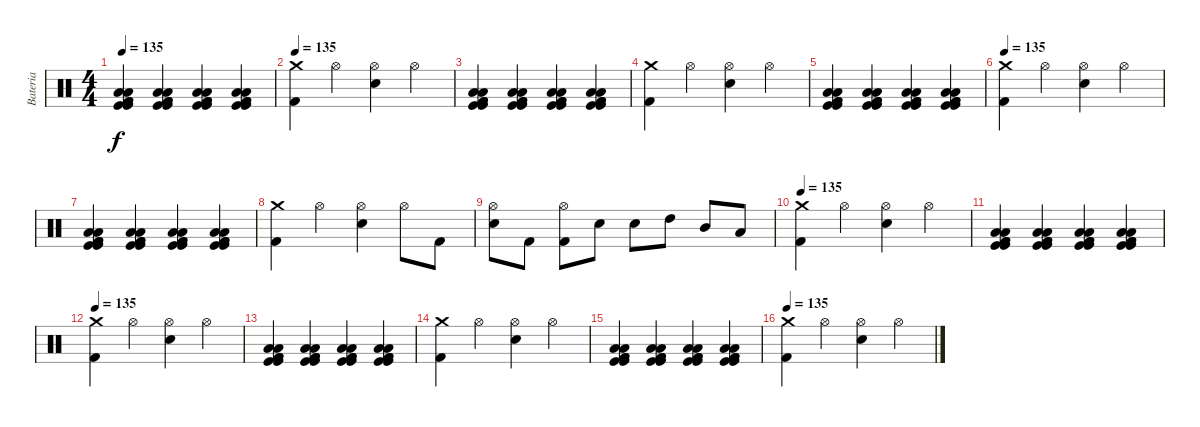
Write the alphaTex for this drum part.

\track ("Bateria" "Bateria") {instrument percussion}
\staff {score}
\articulation defaults
\ts (4 4)
\tempo 135
\clef neutral
\ks c
("Low Floor Tom (hit)" "Kick (hit)" "Kick (hit)" "Kick (hit) 2" "Kick (hit) 2" "Low Floor Tom (hit)").4{dy f} ("Low Floor Tom (hit)" "Kick (hit)" "Kick (hit)" "Kick (hit) 2" "Kick (hit) 2" "Low Floor Tom (hit)").4 ("Low Floor Tom (hit)" "Kick (hit)" "Kick (hit)" "Kick (hit) 2" "Kick (hit) 2" "Low Floor Tom (hit)").4 ("Low Floor Tom (hit)" "Kick (hit)" "Kick (hit)" "Kick (hit) 2" "Kick (hit) 2" "Low Floor Tom (hit)").4 |
\tempo 135
("Kick (hit) 2" "Crash medium (hit)").4 "Hi-Hat (open)".4 ("Hi-Hat (open)" "Snare (hit) 2").4 "Hi-Hat (open)".4 |
("Low Floor Tom (hit)" "Kick (hit)" "Kick (hit)" "Kick (hit) 2" "Kick (hit) 2" "Low Floor Tom (hit)").4 ("Low Floor Tom (hit)" "Kick (hit)" "Kick (hit)" "Kick (hit) 2" "Kick (hit) 2" "Low Floor Tom (hit)").4 ("Low Floor Tom (hit)" "Kick (hit)" "Kick (hit)" "Kick (hit) 2" "Kick (hit) 2" "Low Floor Tom (hit)").4 ("Low Floor Tom (hit)" "Kick (hit)" "Kick (hit)" "Kick (hit) 2" "Kick (hit) 2" "Low Floor Tom (hit)").4 |
("Kick (hit) 2" "Crash medium (hit)").4 "Hi-Hat (open)".4 ("Hi-Hat (open)" "Snare (hit) 2").4 "Hi-Hat (open)".4 |
("Low Floor Tom (hit)" "Kick (hit)" "Kick (hit)" "Kick (hit) 2" "Kick (hit) 2" "Low Floor Tom (hit)").4 ("Low Floor Tom (hit)" "Kick (hit)" "Kick (hit)" "Kick (hit) 2" "Kick (hit) 2" "Low Floor Tom (hit)").4 ("Low Floor Tom (hit)" "Kick (hit)" "Kick (hit)" "Kick (hit) 2" "Kick (hit) 2" "Low Floor Tom (hit)").4 ("Low Floor Tom (hit)" "Kick (hit)" "Kick (hit)" "Kick (hit) 2" "Kick (hit) 2" "Low Floor Tom (hit)").4 |
\tempo 135
("Kick (hit) 2" "Crash medium (hit)").4 "Hi-Hat (open)".4 ("Hi-Hat (open)" "Snare (hit) 2").4 "Hi-Hat (open)".4 |
("Low Floor Tom (hit)" "Kick (hit)" "Kick (hit)" "Kick (hit) 2" "Kick (hit) 2" "Low Floor Tom (hit)").4 ("Low Floor Tom (hit)" "Kick (hit)" "Kick (hit)" "Kick (hit) 2" "Kick (hit) 2" "Low Floor Tom (hit)").4 ("Low Floor Tom (hit)" "Kick (hit)" "Kick (hit)" "Kick (hit) 2" "Kick (hit) 2" "Low Floor Tom (hit)").4 ("Low Floor Tom (hit)" "Kick (hit)" "Kick (hit)" "Kick (hit) 2" "Kick (hit) 2" "Low Floor Tom (hit)").4 |
("Kick (hit) 2" "Crash medium (hit)").4 "Hi-Hat (open)".4 ("Hi-Hat (open)" "Snare (hit) 2").4 "Hi-Hat (open)".8 "Kick (hit) 2".8 |
("Hi-Hat (open)" "Snare (hit) 2").8 "Kick (hit) 2".8 ("Kick (hit) 2" "Hi-Hat (open)").8 "Snare (hit) 2".8 "Snare (hit) 2".8 "High Tom (hit)".8 "Mid Tom (hit)".8 "Low Tom (hit)".8 |
\tempo 140
\tempo 135
("Kick (hit) 2" "Crash medium (hit)").4 "Hi-Hat (open)".4 ("Hi-Hat (open)" "Snare (hit) 2").4 "Hi-Hat (open)".4 |
("Low Floor Tom (hit)" "Kick (hit)" "Kick (hit)" "Kick (hit) 2" "Kick (hit) 2" "Low Floor Tom (hit)").4 ("Low Floor Tom (hit)" "Kick (hit)" "Kick (hit)" "Kick (hit) 2" "Kick (hit) 2" "Low Floor Tom (hit)").4 ("Low Floor Tom (hit)" "Kick (hit)" "Kick (hit)" "Kick (hit) 2" "Kick (hit) 2" "Low Floor Tom (hit)").4 ("Low Floor Tom (hit)" "Kick (hit)" "Kick (hit)" "Kick (hit) 2" "Kick (hit) 2" "Low Floor Tom (hit)").4 |
\tempo 135
("Kick (hit) 2" "Crash medium (hit)").4 "Hi-Hat (open)".4 ("Hi-Hat (open)" "Snare (hit) 2").4 "Hi-Hat (open)".4 |
("Low Floor Tom (hit)" "Kick (hit)" "Kick (hit)" "Kick (hit) 2" "Kick (hit) 2" "Low Floor Tom (hit)").4 ("Low Floor Tom (hit)" "Kick (hit)" "Kick (hit)" "Kick (hit) 2" "Kick (hit) 2" "Low Floor Tom (hit)").4 ("Low Floor Tom (hit)" "Kick (hit)" "Kick (hit)" "Kick (hit) 2" "Kick (hit) 2" "Low Floor Tom (hit)").4 ("Low Floor Tom (hit)" "Kick (hit)" "Kick (hit)" "Kick (hit) 2" "Kick (hit) 2" "Low Floor Tom (hit)").4 |
("Kick (hit) 2" "Crash medium (hit)").4 "Hi-Hat (open)".4 ("Hi-Hat (open)" "Snare (hit) 2").4 "Hi-Hat (open)".4 |
("Low Floor Tom (hit)" "Kick (hit)" "Kick (hit)" "Kick (hit) 2" "Kick (hit) 2" "Low Floor Tom (hit)").4 ("Low Floor Tom (hit)" "Kick (hit)" "Kick (hit)" "Kick (hit) 2" "Kick (hit) 2" "Low Floor Tom (hit)").4 ("Low Floor Tom (hit)" "Kick (hit)" "Kick (hit)" "Kick (hit) 2" "Kick (hit) 2" "Low Floor Tom (hit)").4 ("Low Floor Tom (hit)" "Kick (hit)" "Kick (hit)" "Kick (hit) 2" "Kick (hit) 2" "Low Floor Tom (hit)").4 |
\tempo 135
("Kick (hit) 2" "Crash medium (hit)").4 "Hi-Hat (open)".4 ("Hi-Hat (open)" "Snare (hit) 2").4 "Hi-Hat (open)".4
